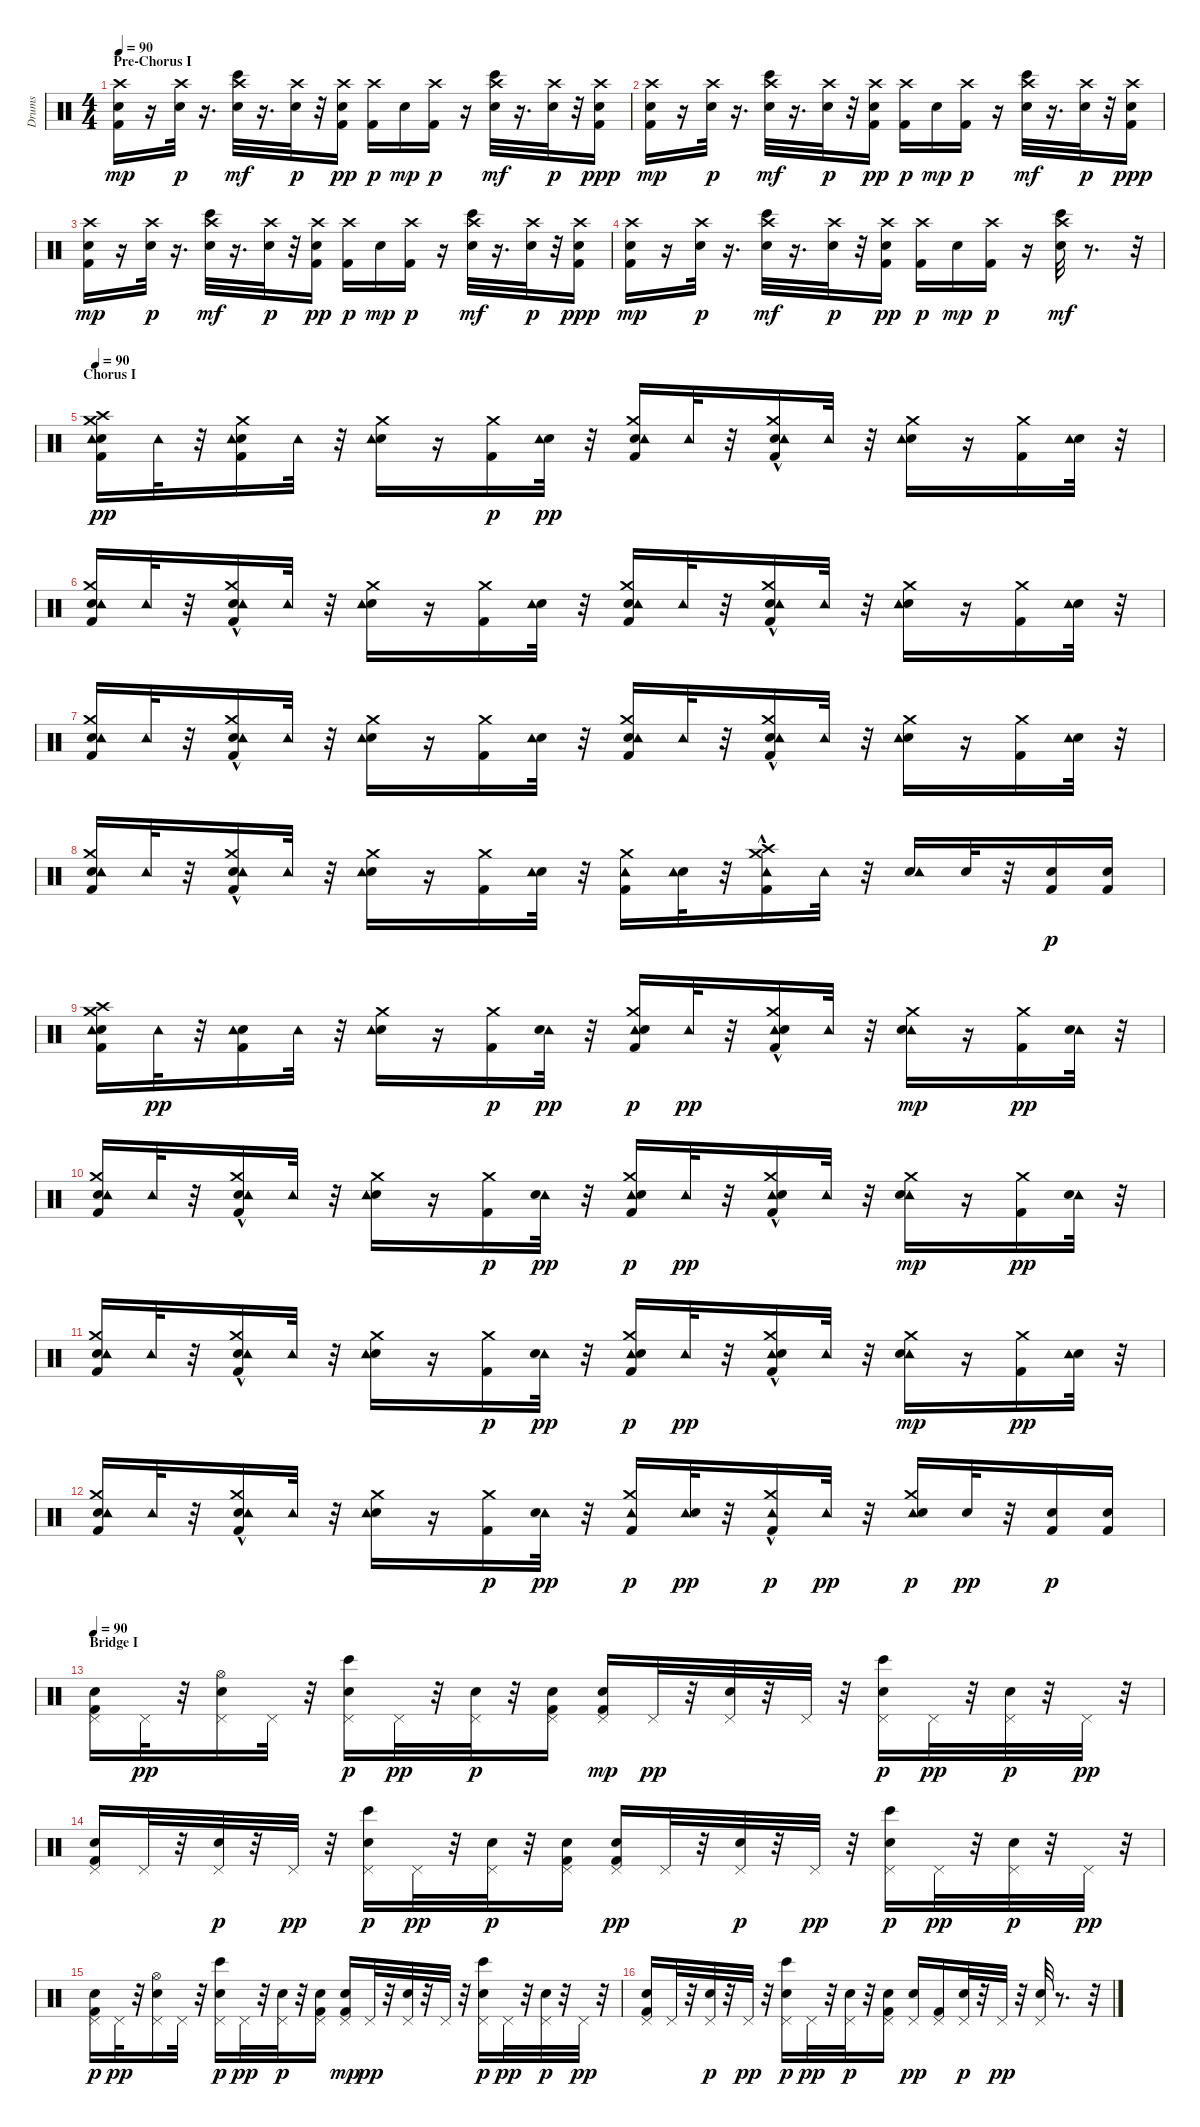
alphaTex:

\track ("Drums" "Drums") {instrument percussion}
\staff {score}
\articulation defaults
\ts (4 4)
\section ("" "Pre-Chorus I")
\tempo 90
\clef neutral
\ks c
("Crash high (hit)" "Kick (hit) 2" "Electric Snare (hit)").16{dy mp volume 9 balance 12} r.16 ("Crash high (hit)" "Electric Snare (hit)").32{dy p} r.16{d} ("Crash high (hit)" "Bongo High (hit)" "Electric Snare (hit)").32{dy mf} r.16{d} ("Crash high (hit)" "Electric Snare (hit)").32{dy p} r.32 ("Crash high (hit)" "Kick (hit) 2" "Electric Snare (hit)").16{dy pp} ("Crash high (hit)" "Kick (hit) 2").16{dy p} "Electric Snare (hit)".16{dy mp} ("Kick (hit) 2" "Crash high (hit)").16{dy p} r.16 ("Crash high (hit)" "Bongo High (hit)" "Electric Snare (hit)").32{dy mf} r.16{d} ("Crash high (hit)" "Electric Snare (hit)").32{dy p} r.32 ("Crash high (hit)" "Kick (hit) 2" "Electric Snare (hit)").16{dy ppp} |
("Crash high (hit)" "Kick (hit) 2" "Electric Snare (hit)").16{dy mp} r.16 ("Crash high (hit)" "Electric Snare (hit)").32{dy p} r.16{d} ("Crash high (hit)" "Bongo High (hit)" "Electric Snare (hit)").32{dy mf} r.16{d} ("Crash high (hit)" "Electric Snare (hit)").32{dy p} r.32 ("Crash high (hit)" "Kick (hit) 2" "Electric Snare (hit)").16{dy pp} ("Crash high (hit)" "Kick (hit) 2").16{dy p} "Electric Snare (hit)".16{dy mp} ("Kick (hit) 2" "Crash high (hit)").16{dy p} r.16 ("Crash high (hit)" "Bongo High (hit)" "Electric Snare (hit)").32{dy mf} r.16{d} ("Crash high (hit)" "Electric Snare (hit)").32{dy p} r.32 ("Crash high (hit)" "Kick (hit) 2" "Electric Snare (hit)").16{dy ppp} |
("Crash high (hit)" "Kick (hit) 2" "Electric Snare (hit)").16{dy mp} r.16 ("Crash high (hit)" "Electric Snare (hit)").32{dy p} r.16{d} ("Crash high (hit)" "Bongo High (hit)" "Electric Snare (hit)").32{dy mf} r.16{d} ("Crash high (hit)" "Electric Snare (hit)").32{dy p} r.32 ("Crash high (hit)" "Kick (hit) 2" "Electric Snare (hit)").16{dy pp} ("Crash high (hit)" "Kick (hit) 2").16{dy p} "Electric Snare (hit)".16{dy mp} ("Kick (hit) 2" "Crash high (hit)").16{dy p} r.16 ("Crash high (hit)" "Bongo High (hit)" "Electric Snare (hit)").32{dy mf} r.16{d} ("Crash high (hit)" "Electric Snare (hit)").32{dy p} r.32 ("Crash high (hit)" "Kick (hit) 2" "Electric Snare (hit)").16{dy ppp} |
("Crash high (hit)" "Kick (hit) 2" "Electric Snare (hit)").16{dy mp} r.16 ("Crash high (hit)" "Electric Snare (hit)").32{dy p} r.16{d} ("Crash high (hit)" "Bongo High (hit)" "Electric Snare (hit)").32{dy mf} r.16{d} ("Crash high (hit)" "Electric Snare (hit)").32{dy p} r.32 ("Crash high (hit)" "Kick (hit) 2" "Electric Snare (hit)").16{dy pp} ("Crash high (hit)" "Kick (hit) 2").16{dy p} "Electric Snare (hit)".16{dy mp} ("Kick (hit) 2" "Crash high (hit)").16{dy p} r.16 ("Crash high (hit)" "Bongo High (hit)" "Electric Snare (hit)").32{dy mf} r.8{d} r.32 |
\section ("" "Chorus I")
\tempo 90
("Electric Snare (hit)" "Crash medium (hit)" "Kick (hit) 2" "Crash high (hit)" "Tambourine (hit)").16{dy pp volume 16 balance 8} "Tambourine (hit)".32 r.32 ("Electric Snare (hit)" "Kick (hit) 2" "Crash medium (hit)" "Tambourine (hit)").16 "Tambourine (hit)".32 r.32 ("Electric Snare (hit)" "Crash medium (hit)" "Tambourine (hit)").16 r.16 ("Crash medium (hit)" "Kick (hit) 2").16{dy p} ("Electric Snare (hit)" "Tambourine (hit)").32{dy pp} r.32 ("Crash medium (hit)" "Electric Snare (hit)" "Kick (hit) 2" "Tambourine (hit)").16 "Tambourine (hit)".32 r.32 ("Crash medium (hit)"{hac} "Electric Snare (hit)" "Kick (hit) 2" "Tambourine (hit)").16 "Tambourine (hit)".32 r.32 ("Crash medium (hit)" "Electric Snare (hit)" "Tambourine (hit)").16 r.16 ("Crash medium (hit)" "Kick (hit) 2").16 ("Electric Snare (hit)" "Tambourine (hit)").32 r.32 |
("Crash medium (hit)" "Electric Snare (hit)" "Kick (hit) 2" "Tambourine (hit)").16 "Tambourine (hit)".32 r.32 ("Crash medium (hit)"{hac} "Electric Snare (hit)" "Kick (hit) 2" "Tambourine (hit)").16 "Tambourine (hit)".32 r.32 ("Crash medium (hit)" "Electric Snare (hit)" "Tambourine (hit)").16 r.16 ("Kick (hit) 2" "Crash medium (hit)").16 ("Electric Snare (hit)" "Tambourine (hit)").32 r.32 ("Electric Snare (hit)" "Kick (hit) 2" "Crash medium (hit)" "Tambourine (hit)").16 "Tambourine (hit)".32 r.32 ("Electric Snare (hit)" "Kick (hit) 2" "Crash medium (hit)"{hac} "Tambourine (hit)").16 "Tambourine (hit)".32 r.32 ("Crash medium (hit)" "Electric Snare (hit)" "Tambourine (hit)").16 r.16 ("Crash medium (hit)" "Kick (hit) 2").16 ("Electric Snare (hit)" "Tambourine (hit)").32 r.32 |
("Kick (hit) 2" "Electric Snare (hit)" "Crash medium (hit)" "Tambourine (hit)").16 "Tambourine (hit)".32 r.32 ("Kick (hit) 2" "Electric Snare (hit)" "Crash medium (hit)"{hac} "Tambourine (hit)").16 "Tambourine (hit)".32 r.32 ("Crash medium (hit)" "Electric Snare (hit)" "Tambourine (hit)").16 r.16 ("Kick (hit) 2" "Crash medium (hit)").16 ("Electric Snare (hit)" "Tambourine (hit)").32 r.32 ("Crash medium (hit)" "Electric Snare (hit)" "Kick (hit) 2" "Tambourine (hit)").16 "Tambourine (hit)".32 r.32 ("Crash medium (hit)"{hac} "Electric Snare (hit)" "Kick (hit) 2" "Tambourine (hit)").16 "Tambourine (hit)".32 r.32 ("Crash medium (hit)" "Electric Snare (hit)" "Tambourine (hit)").16 r.16 ("Kick (hit) 2" "Crash medium (hit)").16 ("Electric Snare (hit)" "Tambourine (hit)").32 r.32 |
("Electric Snare (hit)" "Kick (hit) 2" "Crash medium (hit)" "Tambourine (hit)").16 "Tambourine (hit)".32 r.32 ("Electric Snare (hit)" "Kick (hit) 2" "Crash medium (hit)"{hac} "Tambourine (hit)").16 "Tambourine (hit)".32 r.32 ("Crash medium (hit)" "Electric Snare (hit)" "Tambourine (hit)").16 r.16 ("Kick (hit) 2" "Crash medium (hit)").16 ("Electric Snare (hit)" "Tambourine (hit)").32 r.32 ("Kick (hit) 2" "Crash medium (hit)" "Tambourine (hit)").16 ("Electric Snare (hit)" "Tambourine (hit)").32 r.32 ("Kick (hit) 2" "Crash medium (hit)"{hac} "Crash high (hit)"{hac} "Tambourine (hit)").16 "Tambourine (hit)".32 r.32 ("Electric Snare (hit)" "Tambourine (hit)").16 "Electric Snare (hit)".32 r.32 ("Electric Snare (hit)" "Kick (hit) 2").16{dy p} ("Kick (hit) 2" "Electric Snare (hit)").16 |
("Electric Snare (hit)" "Tambourine (hit)" "Kick (hit) 2" "Crash high (hit)" "Crash medium (hit)").16 "Tambourine (hit)".32{dy pp} r.32 ("Electric Snare (hit)" "Tambourine (hit)" "Kick (hit) 2").16 "Tambourine (hit)".32 r.32 ("Crash medium (hit)" "Electric Snare (hit)" "Tambourine (hit)").16 r.16 ("Crash medium (hit)" "Kick (hit) 2").16{dy p} ("Tambourine (hit)" "Electric Snare (hit)").32{dy pp} r.32 ("Crash medium (hit)" "Tambourine (hit)" "Electric Snare (hit)" "Kick (hit) 2").16{dy p} "Tambourine (hit)".32{dy pp} r.32 ("Crash medium (hit)"{hac} "Tambourine (hit)" "Electric Snare (hit)" "Kick (hit) 2").16 "Tambourine (hit)".32 r.32 ("Crash medium (hit)" "Tambourine (hit)" "Electric Snare (hit)").16{dy mp} r.16 ("Crash medium (hit)" "Kick (hit) 2").16{dy pp} ("Tambourine (hit)" "Electric Snare (hit)").32 r.32 |
("Crash medium (hit)" "Electric Snare (hit)" "Kick (hit) 2" "Tambourine (hit)").16 "Tambourine (hit)".32 r.32 ("Crash medium (hit)"{hac} "Electric Snare (hit)" "Kick (hit) 2" "Tambourine (hit)").16 "Tambourine (hit)".32 r.32 ("Crash medium (hit)" "Electric Snare (hit)" "Tambourine (hit)").16 r.16 ("Crash medium (hit)" "Kick (hit) 2").16{dy p} ("Tambourine (hit)" "Electric Snare (hit)").32{dy pp} r.32 ("Crash medium (hit)" "Tambourine (hit)" "Electric Snare (hit)" "Kick (hit) 2").16{dy p} "Tambourine (hit)".32{dy pp} r.32 ("Crash medium (hit)"{hac} "Tambourine (hit)" "Electric Snare (hit)" "Kick (hit) 2").16 "Tambourine (hit)".32 r.32 ("Crash medium (hit)" "Tambourine (hit)" "Electric Snare (hit)").16{dy mp} r.16 ("Crash medium (hit)" "Kick (hit) 2").16{dy pp} ("Tambourine (hit)" "Electric Snare (hit)").32 r.32 |
("Crash medium (hit)" "Kick (hit) 2" "Electric Snare (hit)" "Tambourine (hit)").16 "Tambourine (hit)".32 r.32 ("Crash medium (hit)"{hac} "Kick (hit) 2" "Electric Snare (hit)" "Tambourine (hit)").16 "Tambourine (hit)".32 r.32 ("Crash medium (hit)" "Electric Snare (hit)" "Tambourine (hit)").16 r.16 ("Crash medium (hit)" "Kick (hit) 2").16{dy p} ("Tambourine (hit)" "Electric Snare (hit)").32{dy pp} r.32 ("Crash medium (hit)" "Tambourine (hit)" "Electric Snare (hit)" "Kick (hit) 2").16{dy p} "Tambourine (hit)".32{dy pp} r.32 ("Crash medium (hit)"{hac} "Tambourine (hit)" "Electric Snare (hit)" "Kick (hit) 2").16 "Tambourine (hit)".32 r.32 ("Crash medium (hit)" "Tambourine (hit)" "Electric Snare (hit)").16{dy mp} r.16 ("Crash medium (hit)" "Kick (hit) 2").16{dy pp} ("Electric Snare (hit)" "Tambourine (hit)").32 r.32 |
("Crash medium (hit)" "Electric Snare (hit)" "Kick (hit) 2" "Tambourine (hit)").16 "Tambourine (hit)".32 r.32 ("Crash medium (hit)"{hac} "Electric Snare (hit)" "Kick (hit) 2" "Tambourine (hit)").16 "Tambourine (hit)".32 r.32 ("Crash medium (hit)" "Electric Snare (hit)" "Tambourine (hit)").16 r.16 ("Crash medium (hit)" "Kick (hit) 2").16{dy p} ("Tambourine (hit)" "Electric Snare (hit)").32{dy pp} r.32 ("Crash medium (hit)" "Tambourine (hit)" "Kick (hit) 2").16{dy p} ("Tambourine (hit)" "Electric Snare (hit)").32{dy pp} r.32 ("Crash medium (hit)"{hac} "Tambourine (hit)" "Kick (hit) 2").16{dy p} "Tambourine (hit)".32{dy pp} r.32 ("Crash medium (hit)" "Tambourine (hit)" "Electric Snare (hit)").16{dy p} "Electric Snare (hit)".32{dy pp} r.32 ("Electric Snare (hit)" "Kick (hit) 2").16{dy p} ("Kick (hit) 2" "Electric Snare (hit)").16 |
\section ("" "Bridge I")
\tempo 90
("Pedal Hi-Hat (hit)" "Snare (hit) 2" "Kick (hit) 2").16{volume 8 balance 8} "Pedal Hi-Hat (hit)".32{dy pp} r.32 ("Pedal Hi-Hat (hit)" "Snare (hit) 2" "Hi-Hat (open)").16 "Pedal Hi-Hat (hit)".32 r.32 ("Bongo High (hit)" "Pedal Hi-Hat (hit)" "Snare (hit) 2").16{dy p} "Pedal Hi-Hat (hit)".32{dy pp} r.32 ("Snare (hit) 2" "Pedal Hi-Hat (hit)").32{dy p} r.32 ("Pedal Hi-Hat (hit)" "Snare (hit) 2" "Kick (hit) 2").16 ("Kick (hit) 2" "Pedal Hi-Hat (hit)" "Snare (hit) 2").16{dy mp} "Pedal Hi-Hat (hit)".32{dy pp} r.32 ("Pedal Hi-Hat (hit)" "Snare (hit) 2").32 r.32 "Pedal Hi-Hat (hit)".32 r.32 ("Pedal Hi-Hat (hit)" "Snare (hit) 2" "Bongo High (hit)").16{dy p} "Pedal Hi-Hat (hit)".32{dy pp} r.32 ("Snare (hit) 2" "Pedal Hi-Hat (hit)").32{dy p} r.32 "Pedal Hi-Hat (hit)".32{dy pp} r.32 |
("Snare (hit) 2" "Kick (hit) 2" "Pedal Hi-Hat (hit)").16 "Pedal Hi-Hat (hit)".32 r.32 ("Snare (hit) 2" "Pedal Hi-Hat (hit)").32{dy p} r.32 "Pedal Hi-Hat (hit)".32{dy pp} r.32 ("Snare (hit) 2" "Bongo High (hit)" "Pedal Hi-Hat (hit)").16{dy p} "Pedal Hi-Hat (hit)".32{dy pp} r.32 ("Snare (hit) 2" "Pedal Hi-Hat (hit)").32{dy p} r.32 ("Snare (hit) 2" "Kick (hit) 2" "Pedal Hi-Hat (hit)").16 ("Kick (hit) 2" "Snare (hit) 2" "Pedal Hi-Hat (hit)").16{dy pp} "Pedal Hi-Hat (hit)".32 r.32 ("Snare (hit) 2" "Pedal Hi-Hat (hit)").32{dy p} r.32 "Pedal Hi-Hat (hit)".32{dy pp} r.32 ("Snare (hit) 2" "Pedal Hi-Hat (hit)" "Bongo High (hit)").16{dy p} "Pedal Hi-Hat (hit)".32{dy pp} r.32 ("Snare (hit) 2" "Pedal Hi-Hat (hit)").32{dy p} r.32 "Pedal Hi-Hat (hit)".32{dy pp} r.32 |
("Pedal Hi-Hat (hit)" "Snare (hit) 2" "Kick (hit) 2").16{dy p} "Pedal Hi-Hat (hit)".32{dy pp} r.32 ("Pedal Hi-Hat (hit)" "Snare (hit) 2" "Hi-Hat (open)").16 "Pedal Hi-Hat (hit)".32 r.32 ("Bongo High (hit)" "Pedal Hi-Hat (hit)" "Snare (hit) 2").16{dy p} "Pedal Hi-Hat (hit)".32{dy pp} r.32 ("Snare (hit) 2" "Pedal Hi-Hat (hit)").32{dy p} r.32 ("Pedal Hi-Hat (hit)" "Snare (hit) 2" "Kick (hit) 2").16 ("Kick (hit) 2" "Pedal Hi-Hat (hit)" "Snare (hit) 2").16{dy mp} "Pedal Hi-Hat (hit)".32{dy pp} r.32 ("Pedal Hi-Hat (hit)" "Snare (hit) 2").32 r.32 "Pedal Hi-Hat (hit)".32 r.32 ("Pedal Hi-Hat (hit)" "Snare (hit) 2" "Bongo High (hit)").16{dy p} "Pedal Hi-Hat (hit)".32{dy pp} r.32 ("Snare (hit) 2" "Pedal Hi-Hat (hit)").32{dy p} r.32 "Pedal Hi-Hat (hit)".32{dy pp} r.32 |
("Snare (hit) 2" "Kick (hit) 2" "Pedal Hi-Hat (hit)").16 "Pedal Hi-Hat (hit)".32 r.32 ("Snare (hit) 2" "Pedal Hi-Hat (hit)").32{dy p} r.32 "Pedal Hi-Hat (hit)".32{dy pp} r.32 ("Snare (hit) 2" "Bongo High (hit)" "Pedal Hi-Hat (hit)").16{dy p} "Pedal Hi-Hat (hit)".32{dy pp} r.32 ("Snare (hit) 2" "Pedal Hi-Hat (hit)").32{dy p} r.32 ("Snare (hit) 2" "Kick (hit) 2" "Pedal Hi-Hat (hit)").16 ("Snare (hit) 2" "Pedal Hi-Hat (hit)").16{dy pp} ("Pedal Hi-Hat (hit)" "Kick (hit) 2").16 ("Snare (hit) 2" "Pedal Hi-Hat (hit)").32{dy p} r.32 "Pedal Hi-Hat (hit)".32{dy pp} r.32 ("Snare (hit) 2" "Pedal Hi-Hat (hit)").32 r.8{d} r.32
